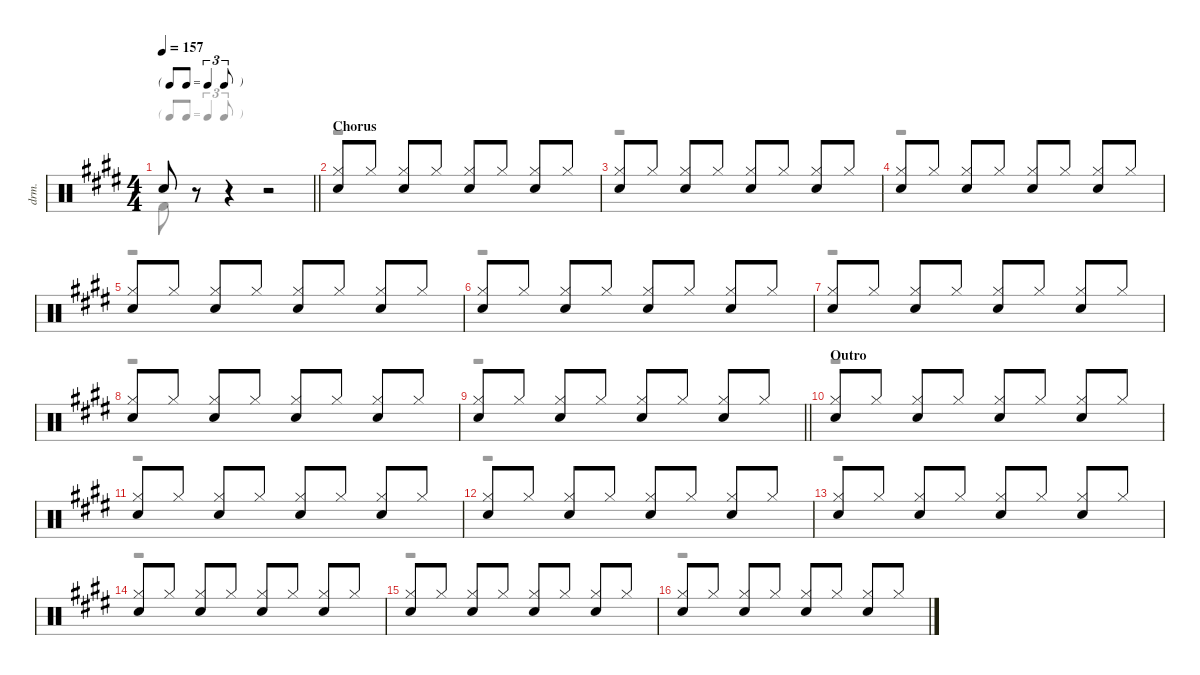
\defaultSystemsLayout 4
\hideDynamics
\bracketExtendMode nobrackets
\otherSystemsTrackNameOrientation horizontal
\track ("Drums" "drm.") {instrument percussion}
\staff {score}
\articulation defaults
\voice
\ts (4 4)
\tf triplet8th
\tempo 157
\clef neutral
\barLineRight lightlight
\ks e "Snare (hit) 2"{acc forcenatural}.8{dy f beam Up}
r.8{beam Up} r.4{beam Up} r.2{beam Up} |
\section ("" "Chorus")
("Hi-Hat (closed)"{acc forcenatural} "Snare (hit) 2"{acc forcenatural}).8{beam Up} "Hi-Hat (closed)"{acc forcenatural}.8{beam Up} ("Hi-Hat (closed)"{acc forcenatural} "Snare (hit) 2"{acc forcenatural}).8{beam Up} "Hi-Hat (closed)"{acc forcenatural}.8{beam Up} ("Hi-Hat (closed)"{acc forcenatural} "Snare (hit) 2"{acc forcenatural}).8{beam Up} "Hi-Hat (closed)"{acc forcenatural}.8{beam Up} ("Hi-Hat (closed)"{acc forcenatural} "Snare (hit) 2"{acc forcenatural}).8{beam Up} "Hi-Hat (closed)"{acc forcenatural}.8{beam Up} |
("Hi-Hat (closed)"{acc forcenatural} "Snare (hit) 2"{acc forcenatural}).8{beam Up} "Hi-Hat (closed)"{acc forcenatural}.8{beam Up} ("Hi-Hat (closed)"{acc forcenatural} "Snare (hit) 2"{acc forcenatural}).8{beam Up} "Hi-Hat (closed)"{acc forcenatural}.8{beam Up} ("Hi-Hat (closed)"{acc forcenatural} "Snare (hit) 2"{acc forcenatural}).8{beam Up} "Hi-Hat (closed)"{acc forcenatural}.8{beam Up} ("Hi-Hat (closed)"{acc forcenatural} "Snare (hit) 2"{acc forcenatural}).8{beam Up} "Hi-Hat (closed)"{acc forcenatural}.8{beam Up} |
("Hi-Hat (closed)"{acc forcenatural} "Snare (hit) 2"{acc forcenatural}).8{beam Up} "Hi-Hat (closed)"{acc forcenatural}.8{beam Up} ("Hi-Hat (closed)"{acc forcenatural} "Snare (hit) 2"{acc forcenatural}).8{beam Up} "Hi-Hat (closed)"{acc forcenatural}.8{beam Up} ("Hi-Hat (closed)"{acc forcenatural} "Snare (hit) 2"{acc forcenatural}).8{beam Up} "Hi-Hat (closed)"{acc forcenatural}.8{beam Up} ("Hi-Hat (closed)"{acc forcenatural} "Snare (hit) 2"{acc forcenatural}).8{beam Up} "Hi-Hat (closed)"{acc forcenatural}.8{beam Up} |
("Hi-Hat (closed)"{acc forcenatural} "Snare (hit) 2"{acc forcenatural}).8{beam Up} "Hi-Hat (closed)"{acc forcenatural}.8{beam Up} ("Hi-Hat (closed)"{acc forcenatural} "Snare (hit) 2"{acc forcenatural}).8{beam Up} "Hi-Hat (closed)"{acc forcenatural}.8{beam Up} ("Hi-Hat (closed)"{acc forcenatural} "Snare (hit) 2"{acc forcenatural}).8{beam Up} "Hi-Hat (closed)"{acc forcenatural}.8{beam Up} ("Hi-Hat (closed)"{acc forcenatural} "Snare (hit) 2"{acc forcenatural}).8{beam Up} "Hi-Hat (closed)"{acc forcenatural}.8{beam Up} |
("Hi-Hat (closed)"{acc forcenatural} "Snare (hit) 2"{acc forcenatural}).8{beam Up} "Hi-Hat (closed)"{acc forcenatural}.8{beam Up} ("Hi-Hat (closed)"{acc forcenatural} "Snare (hit) 2"{acc forcenatural}).8{beam Up} "Hi-Hat (closed)"{acc forcenatural}.8{beam Up} ("Hi-Hat (closed)"{acc forcenatural} "Snare (hit) 2"{acc forcenatural}).8{beam Up} "Hi-Hat (closed)"{acc forcenatural}.8{beam Up} ("Hi-Hat (closed)"{acc forcenatural} "Snare (hit) 2"{acc forcenatural}).8{beam Up} "Hi-Hat (closed)"{acc forcenatural}.8{beam Up} |
("Hi-Hat (closed)"{acc forcenatural} "Snare (hit) 2"{acc forcenatural}).8{beam Up} "Hi-Hat (closed)"{acc forcenatural}.8{beam Up} ("Hi-Hat (closed)"{acc forcenatural} "Snare (hit) 2"{acc forcenatural}).8{beam Up} "Hi-Hat (closed)"{acc forcenatural}.8{beam Up} ("Hi-Hat (closed)"{acc forcenatural} "Snare (hit) 2"{acc forcenatural}).8{beam Up} "Hi-Hat (closed)"{acc forcenatural}.8{beam Up} ("Hi-Hat (closed)"{acc forcenatural} "Snare (hit) 2"{acc forcenatural}).8{beam Up} "Hi-Hat (closed)"{acc forcenatural}.8{beam Up} |
("Hi-Hat (closed)"{acc forcenatural} "Snare (hit) 2"{acc forcenatural}).8{beam Up} "Hi-Hat (closed)"{acc forcenatural}.8{beam Up} ("Hi-Hat (closed)"{acc forcenatural} "Snare (hit) 2"{acc forcenatural}).8{beam Up} "Hi-Hat (closed)"{acc forcenatural}.8{beam Up} ("Hi-Hat (closed)"{acc forcenatural} "Snare (hit) 2"{acc forcenatural}).8{beam Up} "Hi-Hat (closed)"{acc forcenatural}.8{beam Up} ("Hi-Hat (closed)"{acc forcenatural} "Snare (hit) 2"{acc forcenatural}).8{beam Up} "Hi-Hat (closed)"{acc forcenatural}.8{beam Up} |
\barLineRight lightlight
("Hi-Hat (closed)"{acc forcenatural} "Snare (hit) 2"{acc forcenatural}).8{beam Up} "Hi-Hat (closed)"{acc forcenatural}.8{beam Up} ("Hi-Hat (closed)"{acc forcenatural} "Snare (hit) 2"{acc forcenatural}).8{beam Up} "Hi-Hat (closed)"{acc forcenatural}.8{beam Up} ("Hi-Hat (closed)"{acc forcenatural} "Snare (hit) 2"{acc forcenatural}).8{beam Up} "Hi-Hat (closed)"{acc forcenatural}.8{beam Up} ("Hi-Hat (closed)"{acc forcenatural} "Snare (hit) 2"{acc forcenatural}).8{beam Up} "Hi-Hat (closed)"{acc forcenatural}.8{beam Up} |
\section ("" "Outro")
("Hi-Hat (closed)"{acc forcenatural} "Snare (hit) 2"{acc forcenatural}).8{beam Up} "Hi-Hat (closed)"{acc forcenatural}.8{beam Up} ("Hi-Hat (closed)"{acc forcenatural} "Snare (hit) 2"{acc forcenatural}).8{beam Up} "Hi-Hat (closed)"{acc forcenatural}.8{beam Up} ("Hi-Hat (closed)"{acc forcenatural} "Snare (hit) 2"{acc forcenatural}).8{beam Up} "Hi-Hat (closed)"{acc forcenatural}.8{beam Up} ("Hi-Hat (closed)"{acc forcenatural} "Snare (hit) 2"{acc forcenatural}).8{beam Up} "Hi-Hat (closed)"{acc forcenatural}.8{beam Up} |
("Hi-Hat (closed)"{acc forcenatural} "Snare (hit) 2"{acc forcenatural}).8{beam Up} "Hi-Hat (closed)"{acc forcenatural}.8{beam Up} ("Hi-Hat (closed)"{acc forcenatural} "Snare (hit) 2"{acc forcenatural}).8{beam Up} "Hi-Hat (closed)"{acc forcenatural}.8{beam Up} ("Hi-Hat (closed)"{acc forcenatural} "Snare (hit) 2"{acc forcenatural}).8{beam Up} "Hi-Hat (closed)"{acc forcenatural}.8{beam Up} ("Hi-Hat (closed)"{acc forcenatural} "Snare (hit) 2"{acc forcenatural}).8{beam Up} "Hi-Hat (closed)"{acc forcenatural}.8{beam Up} |
("Hi-Hat (closed)"{acc forcenatural} "Snare (hit) 2"{acc forcenatural}).8{beam Up} "Hi-Hat (closed)"{acc forcenatural}.8{beam Up} ("Hi-Hat (closed)"{acc forcenatural} "Snare (hit) 2"{acc forcenatural}).8{beam Up} "Hi-Hat (closed)"{acc forcenatural}.8{beam Up} ("Hi-Hat (closed)"{acc forcenatural} "Snare (hit) 2"{acc forcenatural}).8{beam Up} "Hi-Hat (closed)"{acc forcenatural}.8{beam Up} ("Hi-Hat (closed)"{acc forcenatural} "Snare (hit) 2"{acc forcenatural}).8{beam Up} "Hi-Hat (closed)"{acc forcenatural}.8{beam Up} |
("Hi-Hat (closed)"{acc forcenatural} "Snare (hit) 2"{acc forcenatural}).8{beam Up} "Hi-Hat (closed)"{acc forcenatural}.8{beam Up} ("Hi-Hat (closed)"{acc forcenatural} "Snare (hit) 2"{acc forcenatural}).8{beam Up} "Hi-Hat (closed)"{acc forcenatural}.8{beam Up} ("Hi-Hat (closed)"{acc forcenatural} "Snare (hit) 2"{acc forcenatural}).8{beam Up} "Hi-Hat (closed)"{acc forcenatural}.8{beam Up} ("Hi-Hat (closed)"{acc forcenatural} "Snare (hit) 2"{acc forcenatural}).8{beam Up} "Hi-Hat (closed)"{acc forcenatural}.8{beam Up} |
("Hi-Hat (closed)"{acc forcenatural} "Snare (hit) 2"{acc forcenatural}).8{beam Up} "Hi-Hat (closed)"{acc forcenatural}.8{beam Up} ("Hi-Hat (closed)"{acc forcenatural} "Snare (hit) 2"{acc forcenatural}).8{beam Up} "Hi-Hat (closed)"{acc forcenatural}.8{beam Up} ("Hi-Hat (closed)"{acc forcenatural} "Snare (hit) 2"{acc forcenatural}).8{beam Up} "Hi-Hat (closed)"{acc forcenatural}.8{beam Up} ("Hi-Hat (closed)"{acc forcenatural} "Snare (hit) 2"{acc forcenatural}).8{beam Up} "Hi-Hat (closed)"{acc forcenatural}.8{beam Up} |
("Hi-Hat (closed)"{acc forcenatural} "Snare (hit) 2"{acc forcenatural}).8{beam Up} "Hi-Hat (closed)"{acc forcenatural}.8{beam Up} ("Hi-Hat (closed)"{acc forcenatural} "Snare (hit) 2"{acc forcenatural}).8{beam Up} "Hi-Hat (closed)"{acc forcenatural}.8{beam Up} ("Hi-Hat (closed)"{acc forcenatural} "Snare (hit) 2"{acc forcenatural}).8{beam Up} "Hi-Hat (closed)"{acc forcenatural}.8{beam Up} ("Hi-Hat (closed)"{acc forcenatural} "Snare (hit) 2"{acc forcenatural}).8{beam Up} "Hi-Hat (closed)"{acc forcenatural}.8{beam Up} |
("Hi-Hat (closed)"{acc forcenatural} "Snare (hit) 2"{acc forcenatural}).8{beam Up} "Hi-Hat (closed)"{acc forcenatural}.8{beam Up} ("Hi-Hat (closed)"{acc forcenatural} "Snare (hit) 2"{acc forcenatural}).8{beam Up} "Hi-Hat (closed)"{acc forcenatural}.8{beam Up} ("Hi-Hat (closed)"{acc forcenatural} "Snare (hit) 2"{acc forcenatural}).8{beam Up} "Hi-Hat (closed)"{acc forcenatural}.8{beam Up} ("Hi-Hat (closed)"{acc forcenatural} "Snare (hit) 2"{acc forcenatural}).8{beam Up} "Hi-Hat (closed)"{acc forcenatural}.8{beam Up}
\voice
\clef neutral
\ottava regular
\simile none
\barLineRight lightlight
\ks e "Kick (hit) 2"{acc forcenatural}.8{dy f beam Down}
r.8{beam Down} r.4{beam Down} r.2{beam Down} |
r.1{beam Down} |
r.1{beam Down} |
r.1{beam Down} |
r.1{beam Down} |
r.1{beam Down} |
r.1{beam Down} |
r.1{beam Down} |
\barLineRight lightlight
r.1{beam Down} |
r.1{beam Down} |
r.1{beam Down} |
r.1{beam Down} |
r.1{beam Down} |
r.1{beam Down} |
r.1{beam Down} |
r.1{beam Down}
